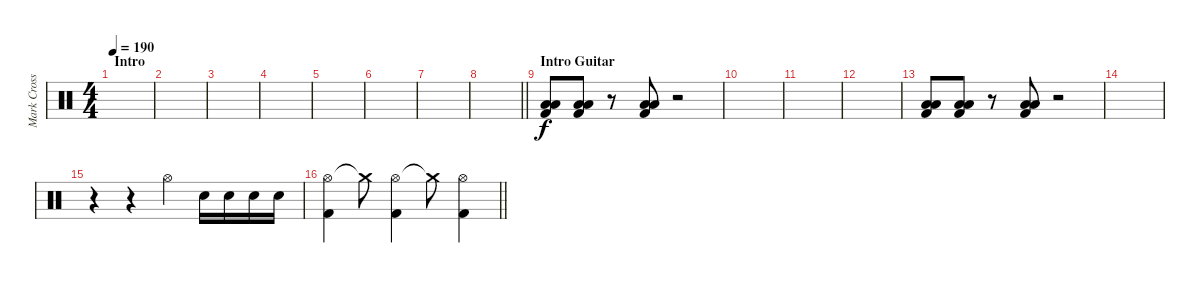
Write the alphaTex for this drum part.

\track ("Mark Cross" "Mark Cross") {instrument percussion}
\staff {score}
\articulation defaults
\ts (4 4)
\section ("" "Intro")
\tempo 190
\clef neutral
\ks c
|
|
|
|
|
|
|
\barLineRight lightlight
|
\section ("" "Intro Guitar")
("Low Floor Tom (hit)" "Low Floor Tom (hit)" "Kick (hit) 2").8 ("Low Floor Tom (hit)" "Low Floor Tom (hit)" "Kick (hit) 2").8 r.8 ("Low Floor Tom (hit)" "Low Floor Tom (hit)" "Kick (hit) 2").8 r.2 |
|
|
|
("Low Floor Tom (hit)" "Low Floor Tom (hit)" "Kick (hit) 2").8 ("Low Floor Tom (hit)" "Low Floor Tom (hit)" "Kick (hit) 2").8 r.8 ("Low Floor Tom (hit)" "Low Floor Tom (hit)" "Kick (hit) 2").8 r.2 |
|
r.4 r.4 "Hi-Hat (open)".4 "Electric Snare (hit)".16 "Electric Snare (hit)".16 "Electric Snare (hit)".16 "Electric Snare (hit)".16 |
\barLineRight lightlight
("Hi-Hat (open)" "Kick (hit) 2").4 "Crash medium (hit)"{t}.8 ("Hi-Hat (open)" "Kick (hit) 2").4 "Crash medium (hit)"{t}.8 ("Hi-Hat (open)" "Kick (hit) 2").4
